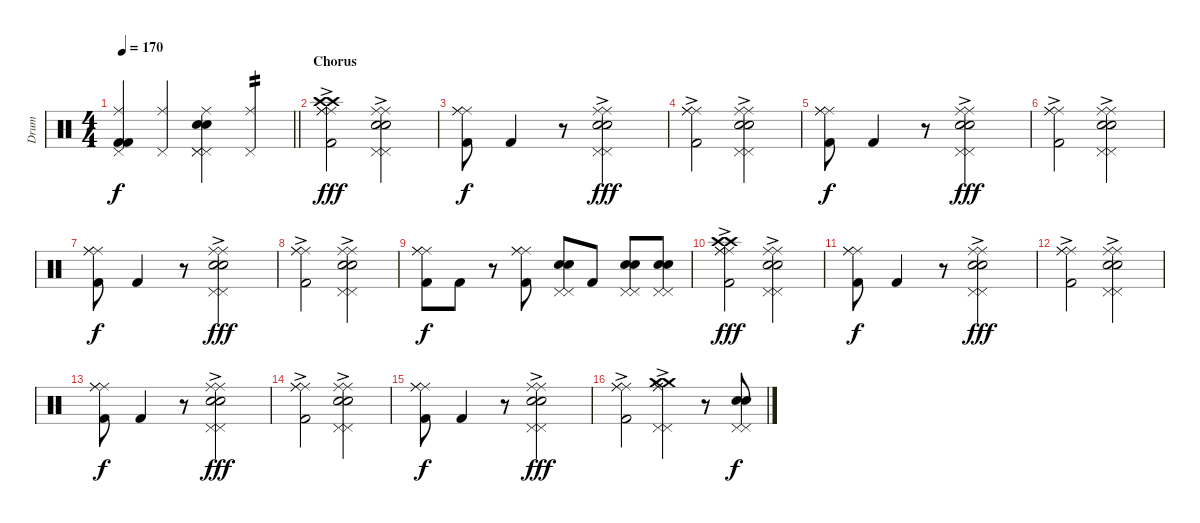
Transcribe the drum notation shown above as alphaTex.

\track ("Drum" "Drum") {instrument percussion}
\staff {score}
\articulation defaults
\ts (4 4)
\tempo 170
\clef neutral
\barLineRight lightlight
\ks c
("Kick (hit) 2" "Kick (hit) 2" "Ride (middle)" "Pedal Hi-Hat (hit)").4{dy f} ("Ride (middle)" "Pedal Hi-Hat (hit)").4 ("Electric Snare (hit)" "Electric Snare (hit)" "Pedal Hi-Hat (hit)" "Pedal Hi-Hat (hit)" "Ride (middle)" "Pedal Hi-Hat (hit)").4 ("Ride (middle)" "Pedal Hi-Hat (hit)").4{tp 2} |
\section ("" "Chorus")
("Crash high (hit)" "Crash high (hit)" "Kick (hit) 2" "Ride (middle)" "Ride (middle)" "Ride (middle)"{ac}).2{dy fff} ("Electric Snare (hit)" "Electric Snare (hit)" "Pedal Hi-Hat (hit)" "Pedal Hi-Hat (hit)" "Ride (middle)" "Ride (middle)"{ac}).2 |
("Kick (hit) 2" "Ride (middle)" "Ride (middle)" "Ride (middle)").8{dy f} "Kick (hit) 2".4 r.8 ("Electric Snare (hit)" "Electric Snare (hit)" "Pedal Hi-Hat (hit)" "Pedal Hi-Hat (hit)" "Ride (middle)" "Ride (middle)"{ac}).2{dy fff} |
("Kick (hit) 2" "Ride (middle)" "Ride (middle)" "Ride (middle)"{ac}).2 ("Electric Snare (hit)" "Electric Snare (hit)" "Pedal Hi-Hat (hit)" "Pedal Hi-Hat (hit)" "Ride (middle)" "Ride (middle)"{ac}).2 |
("Kick (hit) 2" "Ride (middle)" "Ride (middle)" "Ride (middle)").8{dy f} "Kick (hit) 2".4 r.8 ("Electric Snare (hit)" "Electric Snare (hit)" "Pedal Hi-Hat (hit)" "Pedal Hi-Hat (hit)" "Ride (middle)" "Ride (middle)"{ac}).2{dy fff} |
("Kick (hit) 2" "Ride (middle)" "Ride (middle)" "Ride (middle)"{ac}).2 ("Electric Snare (hit)" "Electric Snare (hit)" "Pedal Hi-Hat (hit)" "Pedal Hi-Hat (hit)" "Ride (middle)" "Ride (middle)"{ac}).2 |
("Kick (hit) 2" "Ride (middle)" "Ride (middle)" "Ride (middle)").8{dy f} "Kick (hit) 2".4 r.8 ("Electric Snare (hit)" "Electric Snare (hit)" "Pedal Hi-Hat (hit)" "Pedal Hi-Hat (hit)" "Ride (middle)" "Ride (middle)"{ac}).2{dy fff} |
("Kick (hit) 2" "Ride (middle)" "Ride (middle)" "Ride (middle)"{ac}).2 ("Electric Snare (hit)" "Electric Snare (hit)" "Pedal Hi-Hat (hit)" "Pedal Hi-Hat (hit)" "Ride (middle)" "Ride (middle)"{ac}).2 |
("Kick (hit) 2" "Ride (middle)" "Ride (middle)" "Ride (middle)").8{dy f} "Kick (hit) 2".8 r.8 ("Kick (hit) 2" "Ride (middle)" "Ride (middle)" "Ride (middle)").8 ("Electric Snare (hit)" "Electric Snare (hit)" "Pedal Hi-Hat (hit)" "Pedal Hi-Hat (hit)").8 "Kick (hit) 2".8 ("Electric Snare (hit)" "Electric Snare (hit)" "Pedal Hi-Hat (hit)" "Pedal Hi-Hat (hit)").8 ("Electric Snare (hit)" "Electric Snare (hit)" "Pedal Hi-Hat (hit)" "Pedal Hi-Hat (hit)").8 |
("Crash high (hit)" "Crash high (hit)" "Kick (hit) 2" "Ride (middle)" "Ride (middle)" "Ride (middle)"{ac}).2{dy fff} ("Electric Snare (hit)" "Electric Snare (hit)" "Pedal Hi-Hat (hit)" "Pedal Hi-Hat (hit)" "Ride (middle)" "Ride (middle)"{ac}).2 |
("Kick (hit) 2" "Ride (middle)" "Ride (middle)" "Ride (middle)").8{dy f} "Kick (hit) 2".4 r.8 ("Electric Snare (hit)" "Electric Snare (hit)" "Pedal Hi-Hat (hit)" "Pedal Hi-Hat (hit)" "Ride (middle)" "Ride (middle)"{ac}).2{dy fff} |
("Kick (hit) 2" "Ride (middle)" "Ride (middle)" "Ride (middle)"{ac}).2 ("Electric Snare (hit)" "Electric Snare (hit)" "Pedal Hi-Hat (hit)" "Pedal Hi-Hat (hit)" "Ride (middle)" "Ride (middle)"{ac}).2 |
("Kick (hit) 2" "Ride (middle)" "Ride (middle)" "Ride (middle)").8{dy f} "Kick (hit) 2".4 r.8 ("Electric Snare (hit)" "Electric Snare (hit)" "Pedal Hi-Hat (hit)" "Pedal Hi-Hat (hit)" "Ride (middle)" "Ride (middle)"{ac}).2{dy fff} |
("Kick (hit) 2" "Ride (middle)" "Ride (middle)" "Ride (middle)"{ac}).2 ("Electric Snare (hit)" "Electric Snare (hit)" "Pedal Hi-Hat (hit)" "Pedal Hi-Hat (hit)" "Ride (middle)" "Ride (middle)"{ac}).2 |
("Kick (hit) 2" "Ride (middle)" "Ride (middle)" "Ride (middle)").8{dy f} "Kick (hit) 2".4 r.8 ("Electric Snare (hit)" "Electric Snare (hit)" "Pedal Hi-Hat (hit)" "Pedal Hi-Hat (hit)" "Ride (middle)" "Ride (middle)"{ac}).2{dy fff} |
("Kick (hit) 2" "Ride (middle)" "Ride (middle)" "Ride (middle)"{ac}).2 ("Crash medium (hit)" "Crash medium (hit)" "Pedal Hi-Hat (hit)" "Pedal Hi-Hat (hit)" "Ride (middle)" "Ride (middle)"{ac}).4 r.8 ("Electric Snare (hit)" "Electric Snare (hit)" "Pedal Hi-Hat (hit)" "Pedal Hi-Hat (hit)").8{dy f}
